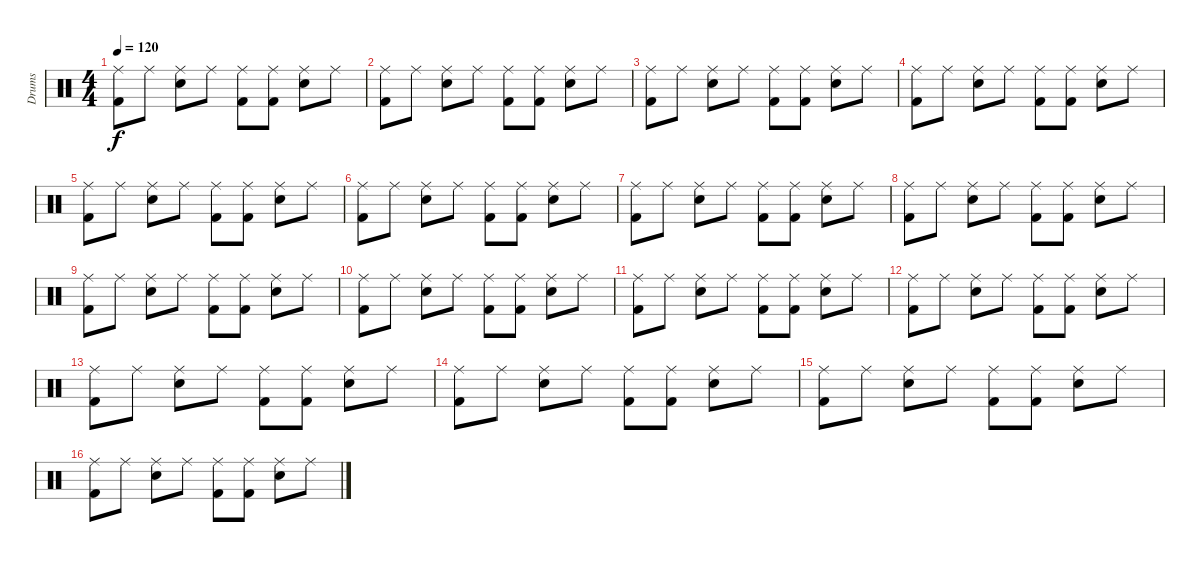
\track ("Drums" "Drums") {instrument percussion}
\staff {score}
\articulation defaults
\ts (4 4)
\tempo 120
\clef neutral
\ks c
("Ride (middle)" "Kick (hit) 2").8{dy f} "Ride (middle)".8 ("Ride (middle)" "Snare (hit) 2").8 "Ride (middle)".8 ("Ride (middle)" "Kick (hit) 2").8 ("Ride (middle)" "Kick (hit) 2").8 ("Ride (middle)" "Snare (hit) 2").8 "Ride (middle)".8 |
("Ride (middle)" "Kick (hit) 2").8 "Ride (middle)".8 ("Ride (middle)" "Snare (hit) 2").8 "Ride (middle)".8 ("Ride (middle)" "Kick (hit) 2").8 ("Ride (middle)" "Kick (hit) 2").8 ("Ride (middle)" "Snare (hit) 2").8 "Ride (middle)".8 |
("Ride (middle)" "Kick (hit) 2").8 "Ride (middle)".8 ("Ride (middle)" "Snare (hit) 2").8 "Ride (middle)".8 ("Ride (middle)" "Kick (hit) 2").8 ("Ride (middle)" "Kick (hit) 2").8 ("Ride (middle)" "Snare (hit) 2").8 "Ride (middle)".8 |
("Ride (middle)" "Kick (hit) 2").8 "Ride (middle)".8 ("Ride (middle)" "Snare (hit) 2").8 "Ride (middle)".8 ("Ride (middle)" "Kick (hit) 2").8 ("Ride (middle)" "Kick (hit) 2").8 ("Ride (middle)" "Snare (hit) 2").8 "Ride (middle)".8 |
("Ride (middle)" "Kick (hit) 2").8 "Ride (middle)".8 ("Ride (middle)" "Snare (hit) 2").8 "Ride (middle)".8 ("Ride (middle)" "Kick (hit) 2").8 ("Ride (middle)" "Kick (hit) 2").8 ("Ride (middle)" "Snare (hit) 2").8 "Ride (middle)".8 |
("Ride (middle)" "Kick (hit) 2").8 "Ride (middle)".8 ("Ride (middle)" "Snare (hit) 2").8 "Ride (middle)".8 ("Ride (middle)" "Kick (hit) 2").8 ("Ride (middle)" "Kick (hit) 2").8 ("Ride (middle)" "Snare (hit) 2").8 "Ride (middle)".8 |
("Ride (middle)" "Kick (hit) 2").8 "Ride (middle)".8 ("Ride (middle)" "Snare (hit) 2").8 "Ride (middle)".8 ("Ride (middle)" "Kick (hit) 2").8 ("Ride (middle)" "Kick (hit) 2").8 ("Ride (middle)" "Snare (hit) 2").8 "Ride (middle)".8 |
("Ride (middle)" "Kick (hit) 2").8 "Ride (middle)".8 ("Ride (middle)" "Snare (hit) 2").8 "Ride (middle)".8 ("Ride (middle)" "Kick (hit) 2").8 ("Ride (middle)" "Kick (hit) 2").8 ("Ride (middle)" "Snare (hit) 2").8 "Ride (middle)".8 |
("Ride (middle)" "Kick (hit) 2").8 "Ride (middle)".8 ("Ride (middle)" "Snare (hit) 2").8 "Ride (middle)".8 ("Ride (middle)" "Kick (hit) 2").8 ("Ride (middle)" "Kick (hit) 2").8 ("Ride (middle)" "Snare (hit) 2").8 "Ride (middle)".8 |
("Ride (middle)" "Kick (hit) 2").8 "Ride (middle)".8 ("Ride (middle)" "Snare (hit) 2").8 "Ride (middle)".8 ("Ride (middle)" "Kick (hit) 2").8 ("Ride (middle)" "Kick (hit) 2").8 ("Ride (middle)" "Snare (hit) 2").8 "Ride (middle)".8 |
("Ride (middle)" "Kick (hit) 2").8 "Ride (middle)".8 ("Ride (middle)" "Snare (hit) 2").8 "Ride (middle)".8 ("Ride (middle)" "Kick (hit) 2").8 ("Ride (middle)" "Kick (hit) 2").8 ("Ride (middle)" "Snare (hit) 2").8 "Ride (middle)".8 |
("Ride (middle)" "Kick (hit) 2").8 "Ride (middle)".8 ("Ride (middle)" "Snare (hit) 2").8 "Ride (middle)".8 ("Ride (middle)" "Kick (hit) 2").8 ("Ride (middle)" "Kick (hit) 2").8 ("Ride (middle)" "Snare (hit) 2").8 "Ride (middle)".8 |
("Ride (middle)" "Kick (hit) 2").8 "Ride (middle)".8 ("Ride (middle)" "Snare (hit) 2").8 "Ride (middle)".8 ("Ride (middle)" "Kick (hit) 2").8 ("Ride (middle)" "Kick (hit) 2").8 ("Ride (middle)" "Snare (hit) 2").8 "Ride (middle)".8 |
("Ride (middle)" "Kick (hit) 2").8 "Ride (middle)".8 ("Ride (middle)" "Snare (hit) 2").8 "Ride (middle)".8 ("Ride (middle)" "Kick (hit) 2").8 ("Ride (middle)" "Kick (hit) 2").8 ("Ride (middle)" "Snare (hit) 2").8 "Ride (middle)".8 |
("Ride (middle)" "Kick (hit) 2").8 "Ride (middle)".8 ("Ride (middle)" "Snare (hit) 2").8 "Ride (middle)".8 ("Ride (middle)" "Kick (hit) 2").8 ("Ride (middle)" "Kick (hit) 2").8 ("Ride (middle)" "Snare (hit) 2").8 "Ride (middle)".8 |
("Ride (middle)" "Kick (hit) 2").8 "Ride (middle)".8 ("Ride (middle)" "Snare (hit) 2").8 "Ride (middle)".8 ("Ride (middle)" "Kick (hit) 2").8 ("Ride (middle)" "Kick (hit) 2").8 ("Ride (middle)" "Snare (hit) 2").8 "Ride (middle)".8
